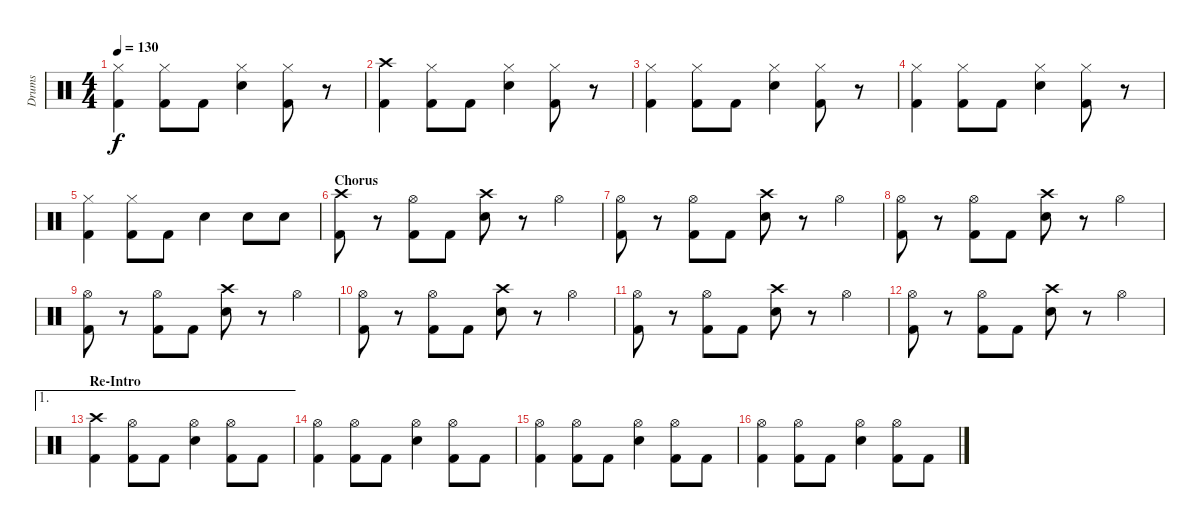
\track ("Drums" "Drums") {instrument percussion}
\staff {score}
\articulation defaults
\ts (4 4)
\tempo 130
\clef neutral
\ks c
("Hi-Hat (closed)" "Kick (hit) 2").4{dy f} ("Hi-Hat (closed)" "Kick (hit) 2").8 "Kick (hit) 2".8 ("Hi-Hat (closed)" "Electric Snare (hit)").4 ("Hi-Hat (closed)" "Kick (hit) 2").8 r.8 |
("Crash high (hit)" "Kick (hit) 2").4 ("Hi-Hat (closed)" "Kick (hit) 2").8 "Kick (hit) 2".8 ("Hi-Hat (closed)" "Electric Snare (hit)").4 ("Hi-Hat (closed)" "Kick (hit) 2").8 r.8 |
("Hi-Hat (closed)" "Kick (hit) 2").4 ("Hi-Hat (closed)" "Kick (hit) 2").8 "Kick (hit) 2".8 ("Hi-Hat (closed)" "Electric Snare (hit)").4 ("Hi-Hat (closed)" "Kick (hit) 2").8 r.8 |
("Hi-Hat (closed)" "Kick (hit) 2").4 ("Hi-Hat (closed)" "Kick (hit) 2").8 "Kick (hit) 2".8 ("Hi-Hat (closed)" "Electric Snare (hit)").4 ("Hi-Hat (closed)" "Kick (hit) 2").8 r.8 |
("Hi-Hat (closed)" "Kick (hit) 2").4 ("Hi-Hat (closed)" "Kick (hit) 2").8 "Kick (hit) 2".8 "Electric Snare (hit)".4 "Electric Snare (hit)".8 "Electric Snare (hit)".8 |
\section ("" "Chorus")
("Crash high (hit)" "Kick (hit) 2").8 r.8 ("Hi-Hat (open)" "Kick (hit) 2").8 "Kick (hit) 2".8 ("Crash high (hit)" "Electric Snare (hit)").8 r.8 "Hi-Hat (open)".4 |
("Hi-Hat (open)" "Kick (hit) 2").8 r.8 ("Hi-Hat (open)" "Kick (hit) 2").8 "Kick (hit) 2".8 ("Crash high (hit)" "Electric Snare (hit)").8 r.8 "Hi-Hat (open)".4 |
("Hi-Hat (open)" "Kick (hit) 2").8 r.8 ("Hi-Hat (open)" "Kick (hit) 2").8 "Kick (hit) 2".8 ("Crash high (hit)" "Electric Snare (hit)").8 r.8 "Hi-Hat (open)".4 |
("Hi-Hat (open)" "Kick (hit) 2").8 r.8 ("Hi-Hat (open)" "Kick (hit) 2").8 "Kick (hit) 2".8 ("Crash high (hit)" "Electric Snare (hit)").8 r.8 "Hi-Hat (open)".4 |
("Hi-Hat (open)" "Kick (hit) 2").8 r.8 ("Hi-Hat (open)" "Kick (hit) 2").8 "Kick (hit) 2".8 ("Crash high (hit)" "Electric Snare (hit)").8 r.8 "Hi-Hat (open)".4 |
("Hi-Hat (open)" "Kick (hit) 2").8 r.8 ("Hi-Hat (open)" "Kick (hit) 2").8 "Kick (hit) 2".8 ("Crash high (hit)" "Electric Snare (hit)").8 r.8 "Hi-Hat (open)".4 |
("Hi-Hat (open)" "Kick (hit) 2").8 r.8 ("Hi-Hat (open)" "Kick (hit) 2").8 "Kick (hit) 2".8 ("Crash high (hit)" "Electric Snare (hit)").8 r.8 "Hi-Hat (open)".4 |
\ae 1
\section ("" "Re-Intro")
("Crash high (hit)" "Kick (hit) 2").4 ("Hi-Hat (open)" "Kick (hit) 2").8 "Kick (hit) 2".8 ("Hi-Hat (open)" "Electric Snare (hit)").4 ("Hi-Hat (open)" "Kick (hit) 2").8 "Kick (hit) 2".8 |
("Hi-Hat (open)" "Kick (hit) 2").4 ("Hi-Hat (open)" "Kick (hit) 2").8 "Kick (hit) 2".8 ("Hi-Hat (open)" "Electric Snare (hit)").4 ("Hi-Hat (open)" "Kick (hit) 2").8 "Kick (hit) 2".8 |
("Hi-Hat (open)" "Kick (hit) 2").4 ("Hi-Hat (open)" "Kick (hit) 2").8 "Kick (hit) 2".8 ("Hi-Hat (open)" "Electric Snare (hit)").4 ("Hi-Hat (open)" "Kick (hit) 2").8 "Kick (hit) 2".8 |
("Hi-Hat (open)" "Kick (hit) 2").4 ("Hi-Hat (open)" "Kick (hit) 2").8 "Kick (hit) 2".8 ("Hi-Hat (open)" "Electric Snare (hit)").4 ("Hi-Hat (open)" "Kick (hit) 2").8 "Kick (hit) 2".8
